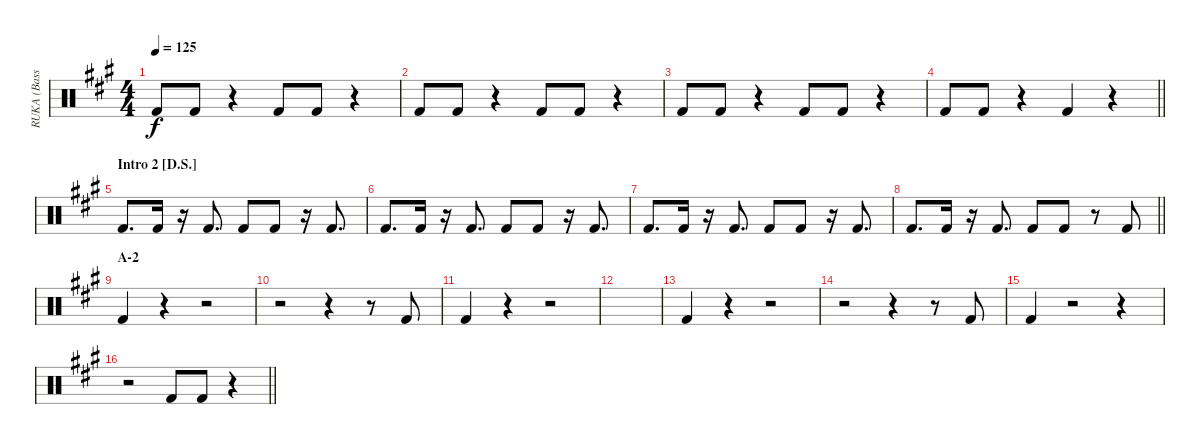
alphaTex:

\track ("RUKA (Bass Drum)" "RUKA (Bass") {instrument percussion}
\staff {score}
\articulation defaults
\ts (4 4)
\tempo 125
\clef neutral
\ks a "Kick (hit) 2".8{dy f} "Kick (hit) 2".8
r.4 "Kick (hit) 2".8 "Kick (hit) 2".8 r.4 |
"Kick (hit) 2".8 "Kick (hit) 2".8 r.4 "Kick (hit) 2".8 "Kick (hit) 2".8 r.4 |
"Kick (hit) 2".8 "Kick (hit) 2".8 r.4 "Kick (hit) 2".8 "Kick (hit) 2".8 r.4 |
\barLineRight lightlight "Kick (hit) 2".8 "Kick (hit) 2".8
r.4 "Kick (hit) 2".4 r.4 |
\section ("" "Intro 2 [D.S.]")
"Kick (hit) 2".8{d} "Kick (hit) 2".16 r.16 "Kick (hit) 2".8{d} "Kick (hit) 2".8 "Kick (hit) 2".8 r.16 "Kick (hit) 2".8{d} |
"Kick (hit) 2".8{d} "Kick (hit) 2".16 r.16 "Kick (hit) 2".8{d} "Kick (hit) 2".8 "Kick (hit) 2".8 r.16 "Kick (hit) 2".8{d} |
"Kick (hit) 2".8{d} "Kick (hit) 2".16 r.16 "Kick (hit) 2".8{d} "Kick (hit) 2".8 "Kick (hit) 2".8 r.16 "Kick (hit) 2".8{d} |
\barLineRight lightlight "Kick (hit) 2".8{d} "Kick (hit) 2".16
r.16 "Kick (hit) 2".8{d} "Kick (hit) 2".8 "Kick (hit) 2".8 r.8 "Kick (hit) 2".8 |
\section ("" "A-2")
"Kick (hit) 2".4 r.4 r.2 |
r.2 r.4 r.8 "Kick (hit) 2".8 |
"Kick (hit) 2".4 r.4 r.2 |
|
"Kick (hit) 2".4 r.4 r.2 |
r.2 r.4 r.8 "Kick (hit) 2".8 |
"Kick (hit) 2".4 r.2 r.4 |
\barLineRight lightlight
r.2 "Kick (hit) 2".8 "Kick (hit) 2".8 r.4
